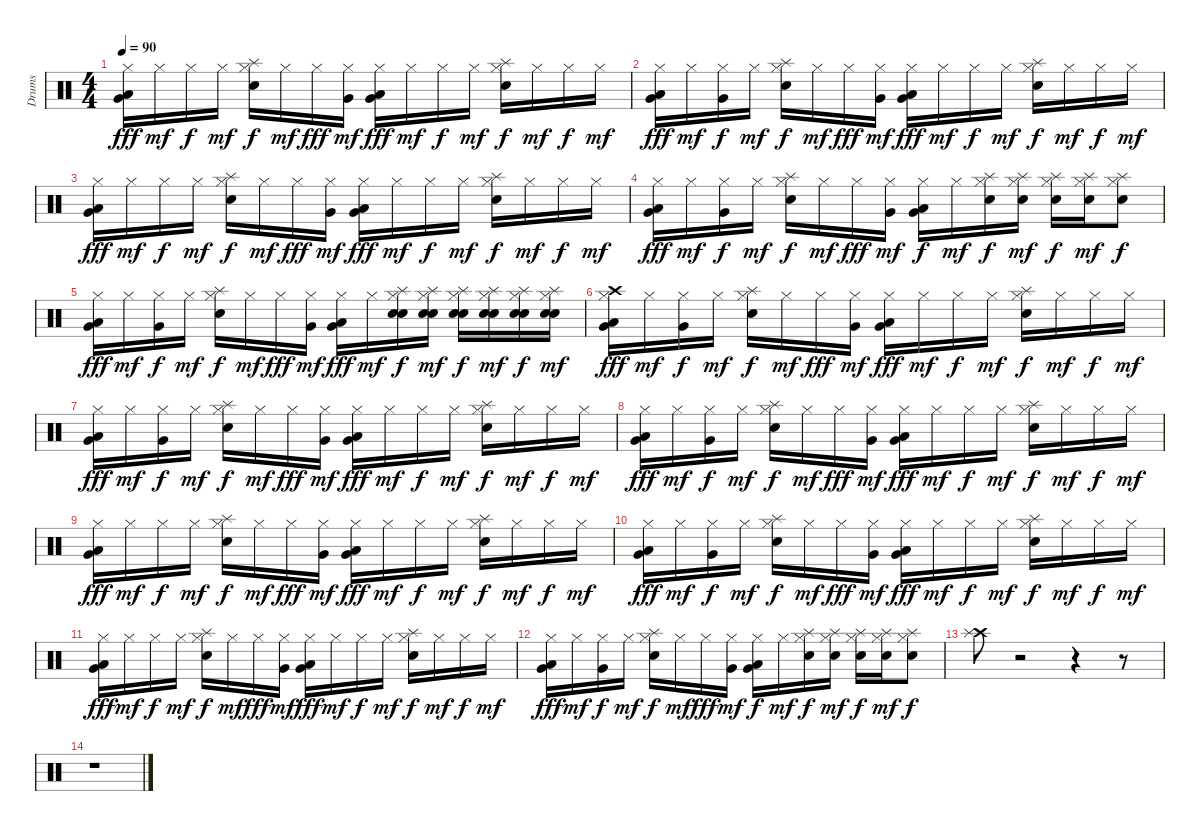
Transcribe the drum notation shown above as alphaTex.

\track ("Drums" "Drums") {instrument percussion}
\staff {score}
\articulation defaults
\ts (4 4)
\tempo 90
\clef neutral
\ks c
("Very Low Tom (hit)" "Low Floor Tom (hit)" "Hi-Hat (closed)").16{dy fff} "Hi-Hat (closed)".16{dy mf} "Hi-Hat (closed)".16{dy f} "Hi-Hat (closed)".16{dy mf} ("Electric Snare (hit)" "Splash (hit)" "Hi-Hat (closed)").16{dy f} "Hi-Hat (closed)".16{dy mf} "Hi-Hat (closed)".16{dy fff} ("Very Low Tom (hit)" "Hi-Hat (closed)").16{dy mf} ("Very Low Tom (hit)" "Low Floor Tom (hit)" "Hi-Hat (closed)").16{dy fff} "Hi-Hat (closed)".16{dy mf} "Hi-Hat (closed)".16{dy f} "Hi-Hat (closed)".16{dy mf} ("Electric Snare (hit)" "Splash (hit)" "Hi-Hat (closed)").16{dy f} "Hi-Hat (closed)".16{dy mf} "Hi-Hat (closed)".16{dy f} "Hi-Hat (closed)".16{dy mf} |
("Very Low Tom (hit)" "Low Floor Tom (hit)" "Hi-Hat (closed)").16{dy fff} "Hi-Hat (closed)".16{dy mf} ("Very Low Tom (hit)" "Hi-Hat (closed)").16{dy f} "Hi-Hat (closed)".16{dy mf} ("Electric Snare (hit)" "Splash (hit)" "Hi-Hat (closed)").16{dy f} "Hi-Hat (closed)".16{dy mf} "Hi-Hat (closed)".16{dy fff} ("Very Low Tom (hit)" "Hi-Hat (closed)").16{dy mf} ("Very Low Tom (hit)" "Low Floor Tom (hit)" "Hi-Hat (closed)").16{dy fff} "Hi-Hat (closed)".16{dy mf} "Hi-Hat (closed)".16{dy f} "Hi-Hat (closed)".16{dy mf} ("Electric Snare (hit)" "Splash (hit)" "Hi-Hat (closed)").16{dy f} "Hi-Hat (closed)".16{dy mf} "Hi-Hat (closed)".16{dy f} "Hi-Hat (closed)".16{dy mf} |
("Very Low Tom (hit)" "Low Floor Tom (hit)" "Hi-Hat (closed)").16{dy fff} "Hi-Hat (closed)".16{dy mf} "Hi-Hat (closed)".16{dy f} "Hi-Hat (closed)".16{dy mf} ("Electric Snare (hit)" "Splash (hit)" "Hi-Hat (closed)").16{dy f} "Hi-Hat (closed)".16{dy mf} "Hi-Hat (closed)".16{dy fff} ("Very Low Tom (hit)" "Hi-Hat (closed)").16{dy mf} ("Very Low Tom (hit)" "Low Floor Tom (hit)" "Hi-Hat (closed)").16{dy fff} "Hi-Hat (closed)".16{dy mf} "Hi-Hat (closed)".16{dy f} "Hi-Hat (closed)".16{dy mf} ("Electric Snare (hit)" "Splash (hit)" "Hi-Hat (closed)").16{dy f} "Hi-Hat (closed)".16{dy mf} "Hi-Hat (closed)".16{dy f} "Hi-Hat (closed)".16{dy mf} |
("Very Low Tom (hit)" "Low Floor Tom (hit)" "Hi-Hat (closed)").16{dy fff} "Hi-Hat (closed)".16{dy mf} ("Very Low Tom (hit)" "Hi-Hat (closed)").16{dy f} "Hi-Hat (closed)".16{dy mf} ("Electric Snare (hit)" "Splash (hit)" "Hi-Hat (closed)").16{dy f} "Hi-Hat (closed)".16{dy mf} "Hi-Hat (closed)".16{dy fff} ("Very Low Tom (hit)" "Hi-Hat (closed)").16{dy mf} ("Very Low Tom (hit)" "Low Floor Tom (hit)" "Hi-Hat (closed)").16{dy f} "Hi-Hat (closed)".16{dy mf} ("Electric Snare (hit)" "Splash (hit)" "Hi-Hat (closed)").16{dy f} ("Electric Snare (hit)" "Splash (hit)" "Hi-Hat (closed)").16{dy mf} ("Electric Snare (hit)" "Splash (hit)" "Hi-Hat (closed)").16{dy f} ("Electric Snare (hit)" "Splash (hit)" "Hi-Hat (closed)").16{dy mf} ("Electric Snare (hit)" "Splash (hit)" "Hi-Hat (closed)").8{dy f} |
("Very Low Tom (hit)" "Low Floor Tom (hit)" "Hi-Hat (closed)").16{dy fff} "Hi-Hat (closed)".16{dy mf} ("Very Low Tom (hit)" "Hi-Hat (closed)").16{dy f} "Hi-Hat (closed)".16{dy mf} ("Electric Snare (hit)" "Splash (hit)" "Hi-Hat (closed)").16{dy f} "Hi-Hat (closed)".16{dy mf} "Hi-Hat (closed)".16{dy fff} ("Very Low Tom (hit)" "Hi-Hat (closed)").16{dy mf} ("Very Low Tom (hit)" "Low Floor Tom (hit)" "Hi-Hat (closed)").16{dy fff} "Hi-Hat (closed)".16{dy mf} ("Electric Snare (hit)" "Electric Snare (hit)" "Splash (hit)" "Hi-Hat (closed)").16{dy f} ("Electric Snare (hit)" "Electric Snare (hit)" "Splash (hit)" "Hi-Hat (closed)").16{dy mf} ("Electric Snare (hit)" "Electric Snare (hit)" "Splash (hit)" "Hi-Hat (closed)").16{dy f} ("Electric Snare (hit)" "Electric Snare (hit)" "Splash (hit)" "Hi-Hat (closed)").16{dy mf} ("Electric Snare (hit)" "Electric Snare (hit)" "Splash (hit)" "Hi-Hat (closed)").16{dy f} ("Electric Snare (hit)" "Electric Snare (hit)" "Splash (hit)" "Hi-Hat (closed)").16{dy mf} |
("Crash high (hit)" "Very Low Tom (hit)" "Low Floor Tom (hit)" "Hi-Hat (closed)").16{dy fff} "Hi-Hat (closed)".16{dy mf} ("Very Low Tom (hit)" "Hi-Hat (closed)").16{dy f} "Hi-Hat (closed)".16{dy mf} ("Electric Snare (hit)" "Splash (hit)" "Hi-Hat (closed)").16{dy f} "Hi-Hat (closed)".16{dy mf} "Hi-Hat (closed)".16{dy fff} ("Very Low Tom (hit)" "Hi-Hat (closed)").16{dy mf} ("Very Low Tom (hit)" "Low Floor Tom (hit)" "Hi-Hat (closed)").16{dy fff} "Hi-Hat (closed)".16{dy mf} "Hi-Hat (closed)".16{dy f} "Hi-Hat (closed)".16{dy mf} ("Electric Snare (hit)" "Splash (hit)" "Hi-Hat (closed)").16{dy f} "Hi-Hat (closed)".16{dy mf} "Hi-Hat (closed)".16{dy f} "Hi-Hat (closed)".16{dy mf} |
("Very Low Tom (hit)" "Low Floor Tom (hit)" "Hi-Hat (closed)").16{dy fff} "Hi-Hat (closed)".16{dy mf} ("Very Low Tom (hit)" "Hi-Hat (closed)").16{dy f} "Hi-Hat (closed)".16{dy mf} ("Electric Snare (hit)" "Splash (hit)" "Hi-Hat (closed)").16{dy f} "Hi-Hat (closed)".16{dy mf} "Hi-Hat (closed)".16{dy fff} ("Very Low Tom (hit)" "Hi-Hat (closed)").16{dy mf} ("Very Low Tom (hit)" "Low Floor Tom (hit)" "Hi-Hat (closed)").16{dy fff} "Hi-Hat (closed)".16{dy mf} "Hi-Hat (closed)".16{dy f} "Hi-Hat (closed)".16{dy mf} ("Electric Snare (hit)" "Splash (hit)" "Hi-Hat (closed)").16{dy f} "Hi-Hat (closed)".16{dy mf} "Hi-Hat (closed)".16{dy f} "Hi-Hat (closed)".16{dy mf} |
("Very Low Tom (hit)" "Low Floor Tom (hit)" "Hi-Hat (closed)").16{dy fff} "Hi-Hat (closed)".16{dy mf} ("Very Low Tom (hit)" "Hi-Hat (closed)").16{dy f} "Hi-Hat (closed)".16{dy mf} ("Electric Snare (hit)" "Splash (hit)" "Hi-Hat (closed)").16{dy f} "Hi-Hat (closed)".16{dy mf} "Hi-Hat (closed)".16{dy fff} ("Very Low Tom (hit)" "Hi-Hat (closed)").16{dy mf} ("Very Low Tom (hit)" "Low Floor Tom (hit)" "Hi-Hat (closed)").16{dy fff} "Hi-Hat (closed)".16{dy mf} "Hi-Hat (closed)".16{dy f} "Hi-Hat (closed)".16{dy mf} ("Electric Snare (hit)" "Splash (hit)" "Hi-Hat (closed)").16{dy f} "Hi-Hat (closed)".16{dy mf} "Hi-Hat (closed)".16{dy f} "Hi-Hat (closed)".16{dy mf} |
("Very Low Tom (hit)" "Low Floor Tom (hit)" "Hi-Hat (closed)").16{dy fff} "Hi-Hat (closed)".16{dy mf} "Hi-Hat (closed)".16{dy f} "Hi-Hat (closed)".16{dy mf} ("Electric Snare (hit)" "Splash (hit)" "Hi-Hat (closed)").16{dy f} "Hi-Hat (closed)".16{dy mf} "Hi-Hat (closed)".16{dy fff} ("Very Low Tom (hit)" "Hi-Hat (closed)").16{dy mf} ("Very Low Tom (hit)" "Low Floor Tom (hit)" "Hi-Hat (closed)").16{dy fff} "Hi-Hat (closed)".16{dy mf} "Hi-Hat (closed)".16{dy f} "Hi-Hat (closed)".16{dy mf} ("Electric Snare (hit)" "Splash (hit)" "Hi-Hat (closed)").16{dy f} "Hi-Hat (closed)".16{dy mf} "Hi-Hat (closed)".16{dy f} "Hi-Hat (closed)".16{dy mf} |
("Very Low Tom (hit)" "Low Floor Tom (hit)" "Hi-Hat (closed)").16{dy fff} "Hi-Hat (closed)".16{dy mf} ("Very Low Tom (hit)" "Hi-Hat (closed)").16{dy f} "Hi-Hat (closed)".16{dy mf} ("Electric Snare (hit)" "Splash (hit)" "Hi-Hat (closed)").16{dy f} "Hi-Hat (closed)".16{dy mf} "Hi-Hat (closed)".16{dy fff} ("Very Low Tom (hit)" "Hi-Hat (closed)").16{dy mf} ("Very Low Tom (hit)" "Low Floor Tom (hit)" "Hi-Hat (closed)").16{dy fff} "Hi-Hat (closed)".16{dy mf} "Hi-Hat (closed)".16{dy f} "Hi-Hat (closed)".16{dy mf} ("Electric Snare (hit)" "Splash (hit)" "Hi-Hat (closed)").16{dy f} "Hi-Hat (closed)".16{dy mf} "Hi-Hat (closed)".16{dy f} "Hi-Hat (closed)".16{dy mf} |
("Very Low Tom (hit)" "Low Floor Tom (hit)" "Hi-Hat (closed)").16{dy fff} "Hi-Hat (closed)".16{dy mf} "Hi-Hat (closed)".16{dy f} "Hi-Hat (closed)".16{dy mf} ("Electric Snare (hit)" "Splash (hit)" "Hi-Hat (closed)").16{dy f} "Hi-Hat (closed)".16{dy mf} "Hi-Hat (closed)".16{dy fff} ("Very Low Tom (hit)" "Hi-Hat (closed)").16{dy mf} ("Very Low Tom (hit)" "Low Floor Tom (hit)" "Hi-Hat (closed)").16{dy fff} "Hi-Hat (closed)".16{dy mf} "Hi-Hat (closed)".16{dy f} "Hi-Hat (closed)".16{dy mf} ("Electric Snare (hit)" "Splash (hit)" "Hi-Hat (closed)").16{dy f} "Hi-Hat (closed)".16{dy mf} "Hi-Hat (closed)".16{dy f} "Hi-Hat (closed)".16{dy mf} |
("Very Low Tom (hit)" "Low Floor Tom (hit)" "Hi-Hat (closed)").16{dy fff} "Hi-Hat (closed)".16{dy mf} ("Very Low Tom (hit)" "Hi-Hat (closed)").16{dy f} "Hi-Hat (closed)".16{dy mf} ("Electric Snare (hit)" "Splash (hit)" "Hi-Hat (closed)").16{dy f} "Hi-Hat (closed)".16{dy mf} "Hi-Hat (closed)".16{dy fff} ("Very Low Tom (hit)" "Hi-Hat (closed)").16{dy mf} ("Very Low Tom (hit)" "Low Floor Tom (hit)" "Hi-Hat (closed)").16{dy f} "Hi-Hat (closed)".16{dy mf} ("Electric Snare (hit)" "Splash (hit)" "Hi-Hat (closed)").16{dy f} ("Electric Snare (hit)" "Splash (hit)" "Hi-Hat (closed)").16{dy mf} ("Electric Snare (hit)" "Splash (hit)" "Hi-Hat (closed)").16{dy f} ("Electric Snare (hit)" "Splash (hit)" "Hi-Hat (closed)").16{dy mf} ("Electric Snare (hit)" "Splash (hit)" "Hi-Hat (closed)").8{dy f} |
("Crash high (hit)" "Splash (hit)").8 r.2 r.4 r.8 |
r.1
